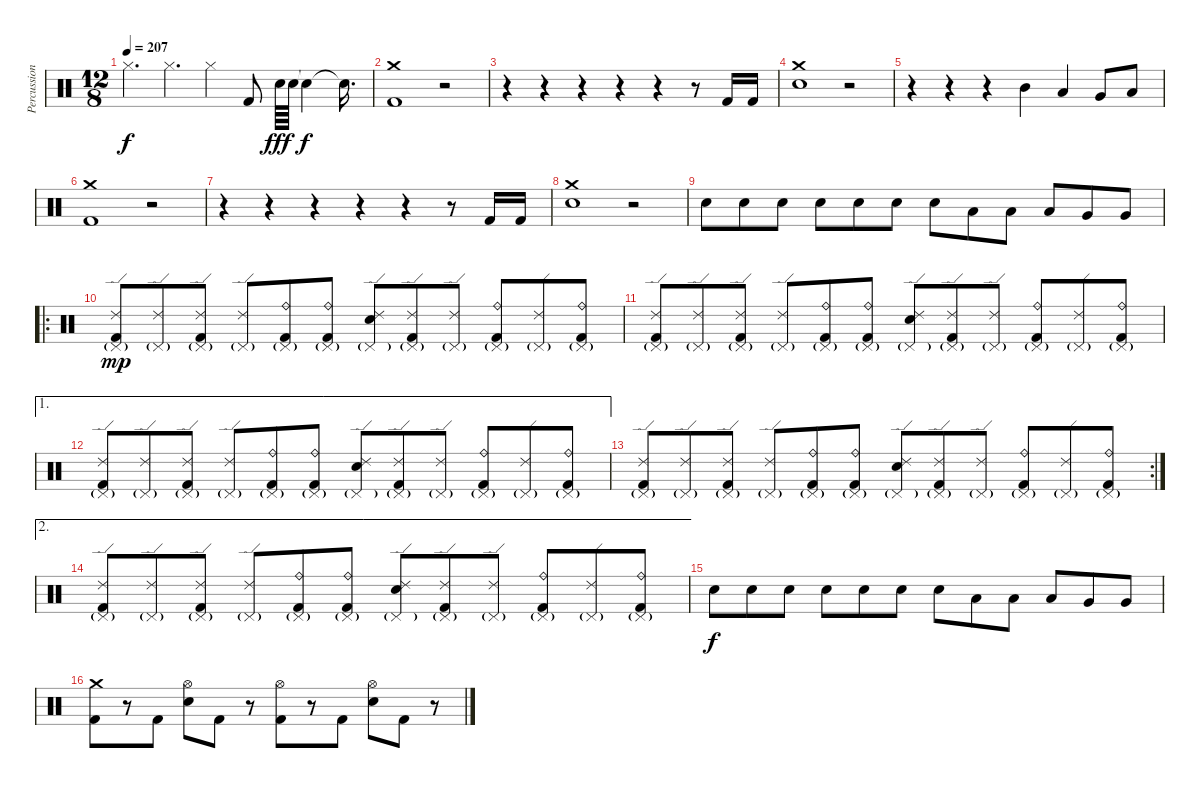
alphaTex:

\track ("Percussion" "Percussion") {instrument percussion}
\staff {score}
\articulation defaults
\ts (12 8)
\tempo 207
\clef neutral
\ks c "Hi-Hat (closed)".4{d dy f} "Hi-Hat (closed)".4{d} "Hi-Hat (closed)".4 "Kick (hit) 2".8 "Snare (hit) 2".64{dy fff} "Snare (hit) 2".64 "Snare (hit)"{t}.4{dy f} "Snare (hit)"{t}.16{d}
|
("Crash medium (hit)" "Kick (hit) 2").1 r.2 |
r.4 r.4 r.4 r.4 r.4 r.8 "Kick (hit) 2".16 "Kick (hit) 2".16 |
("Crash medium (hit)" "Snare (hit) 2").1 r.2 |
r.4 r.4 r.4 "Mid Tom (hit)".4 "Low Tom (hit)".4 "Very Low Tom (hit)".8 "Low Floor Tom (hit)".8 |
("Crash medium (hit)" "Kick (hit) 2").1 r.2 |
r.4 r.4 r.4 r.4 r.4 r.8 "Kick (hit) 2".16 "Kick (hit) 2".16 |
("Crash medium (hit)" "Snare (hit) 2").1 r.2 |
"Electric Snare (hit)".8 "Electric Snare (hit)".8 "Electric Snare (hit)".8 "Electric Snare (hit)".8 "Electric Snare (hit)".8 "Electric Snare (hit)".8 "Electric Snare (hit)".8 "Low Tom (hit)".8 "Low Tom (hit)".8 "Low Tom (hit)".8 "Very Low Tom (hit)".8 "Very Low Tom (hit)".8 |
\ro
("Ride (edge) 2" "Pedal Hi-Hat (hit)"{g} "Kick (hit) 2").8{dy mp} ("Ride (edge) 2" "Pedal Hi-Hat (hit)"{g}).8 ("Ride (edge) 2" "Pedal Hi-Hat (hit)"{g} "Kick (hit) 2").8 ("Ride (edge) 2" "Pedal Hi-Hat (hit)"{g}).8 ("Ride (bell)" "Pedal Hi-Hat (hit)"{g} "Kick (hit) 2").8 ("Ride (bell)" "Pedal Hi-Hat (hit)"{g} "Kick (hit) 2").8 ("Ride (edge) 2" "Pedal Hi-Hat (hit)"{g} "Electric Snare (hit)").8 ("Ride (edge) 2" "Pedal Hi-Hat (hit)"{g} "Kick (hit) 2").8 ("Ride (edge) 2" "Pedal Hi-Hat (hit)"{g}).8 ("Ride (bell)" "Pedal Hi-Hat (hit)"{g} "Kick (hit) 2").8 ("Ride (edge) 2" "Pedal Hi-Hat (hit)"{g}).8 ("Ride (bell)" "Pedal Hi-Hat (hit)"{g} "Kick (hit) 2").8 |
("Ride (edge) 2" "Pedal Hi-Hat (hit)"{g} "Kick (hit) 2").8 ("Ride (edge) 2" "Pedal Hi-Hat (hit)"{g}).8 ("Ride (edge) 2" "Pedal Hi-Hat (hit)"{g} "Kick (hit) 2").8 ("Ride (edge) 2" "Pedal Hi-Hat (hit)"{g}).8 ("Ride (bell)" "Pedal Hi-Hat (hit)"{g} "Kick (hit) 2").8 ("Ride (bell)" "Pedal Hi-Hat (hit)"{g} "Kick (hit) 2").8 ("Ride (edge) 2" "Pedal Hi-Hat (hit)"{g} "Electric Snare (hit)").8 ("Ride (edge) 2" "Pedal Hi-Hat (hit)"{g} "Kick (hit) 2").8 ("Ride (edge) 2" "Pedal Hi-Hat (hit)"{g}).8 ("Ride (bell)" "Pedal Hi-Hat (hit)"{g} "Kick (hit) 2").8 ("Ride (edge) 2" "Pedal Hi-Hat (hit)"{g}).8 ("Ride (bell)" "Pedal Hi-Hat (hit)"{g} "Kick (hit) 2").8 |
\ae 1
("Ride (edge) 2" "Pedal Hi-Hat (hit)"{g} "Kick (hit) 2").8 ("Ride (edge) 2" "Pedal Hi-Hat (hit)"{g}).8 ("Ride (edge) 2" "Pedal Hi-Hat (hit)"{g} "Kick (hit) 2").8 ("Ride (edge) 2" "Pedal Hi-Hat (hit)"{g}).8 ("Ride (bell)" "Pedal Hi-Hat (hit)"{g} "Kick (hit) 2").8 ("Ride (bell)" "Pedal Hi-Hat (hit)"{g} "Kick (hit) 2").8 ("Ride (edge) 2" "Pedal Hi-Hat (hit)"{g} "Electric Snare (hit)").8 ("Ride (edge) 2" "Pedal Hi-Hat (hit)"{g} "Kick (hit) 2").8 ("Ride (edge) 2" "Pedal Hi-Hat (hit)"{g}).8 ("Ride (bell)" "Pedal Hi-Hat (hit)"{g} "Kick (hit) 2").8 ("Ride (edge) 2" "Pedal Hi-Hat (hit)"{g}).8 ("Ride (bell)" "Pedal Hi-Hat (hit)"{g} "Kick (hit) 2").8 |
\rc 2
("Ride (edge) 2" "Pedal Hi-Hat (hit)"{g} "Kick (hit) 2").8 ("Ride (edge) 2" "Pedal Hi-Hat (hit)"{g}).8 ("Ride (edge) 2" "Pedal Hi-Hat (hit)"{g} "Kick (hit) 2").8 ("Ride (edge) 2" "Pedal Hi-Hat (hit)"{g}).8 ("Ride (bell)" "Pedal Hi-Hat (hit)"{g} "Kick (hit) 2").8 ("Ride (bell)" "Pedal Hi-Hat (hit)"{g} "Kick (hit) 2").8 ("Ride (edge) 2" "Pedal Hi-Hat (hit)"{g} "Electric Snare (hit)").8 ("Ride (edge) 2" "Pedal Hi-Hat (hit)"{g} "Kick (hit) 2").8 ("Ride (edge) 2" "Pedal Hi-Hat (hit)"{g}).8 ("Ride (bell)" "Pedal Hi-Hat (hit)"{g} "Kick (hit) 2").8 ("Ride (edge) 2" "Pedal Hi-Hat (hit)"{g}).8 ("Ride (bell)" "Pedal Hi-Hat (hit)"{g} "Kick (hit) 2").8 |
\ae 2
("Ride (edge) 2" "Pedal Hi-Hat (hit)"{g} "Kick (hit) 2").8 ("Ride (edge) 2" "Pedal Hi-Hat (hit)"{g}).8 ("Ride (edge) 2" "Pedal Hi-Hat (hit)"{g} "Kick (hit) 2").8 ("Ride (edge) 2" "Pedal Hi-Hat (hit)"{g}).8 ("Ride (bell)" "Pedal Hi-Hat (hit)"{g} "Kick (hit) 2").8 ("Ride (bell)" "Pedal Hi-Hat (hit)"{g} "Kick (hit) 2").8 ("Ride (edge) 2" "Pedal Hi-Hat (hit)"{g} "Electric Snare (hit)").8 ("Ride (edge) 2" "Pedal Hi-Hat (hit)"{g} "Kick (hit) 2").8 ("Ride (edge) 2" "Pedal Hi-Hat (hit)"{g}).8 ("Ride (bell)" "Pedal Hi-Hat (hit)"{g} "Kick (hit) 2").8 ("Ride (edge) 2" "Pedal Hi-Hat (hit)"{g}).8 ("Ride (bell)" "Pedal Hi-Hat (hit)"{g} "Kick (hit) 2").8 |
"Electric Snare (hit)".8{dy f} "Electric Snare (hit)".8 "Electric Snare (hit)".8 "Electric Snare (hit)".8 "Electric Snare (hit)".8 "Electric Snare (hit)".8 "Electric Snare (hit)".8 "Low Tom (hit)".8 "Low Tom (hit)".8 "Low Tom (hit)".8 "Very Low Tom (hit)".8 "Very Low Tom (hit)".8 |
("Crash medium (hit)" "Kick (hit) 2").8 r.8 "Kick (hit) 2".8 ("Hi-Hat (open)" "Electric Snare (hit)").8 "Kick (hit) 2".8 r.8 ("Hi-Hat (open)" "Kick (hit) 2").8 r.8 "Kick (hit) 2".8 ("Hi-Hat (open)" "Electric Snare (hit)").8 "Kick (hit) 2".8 r.8
